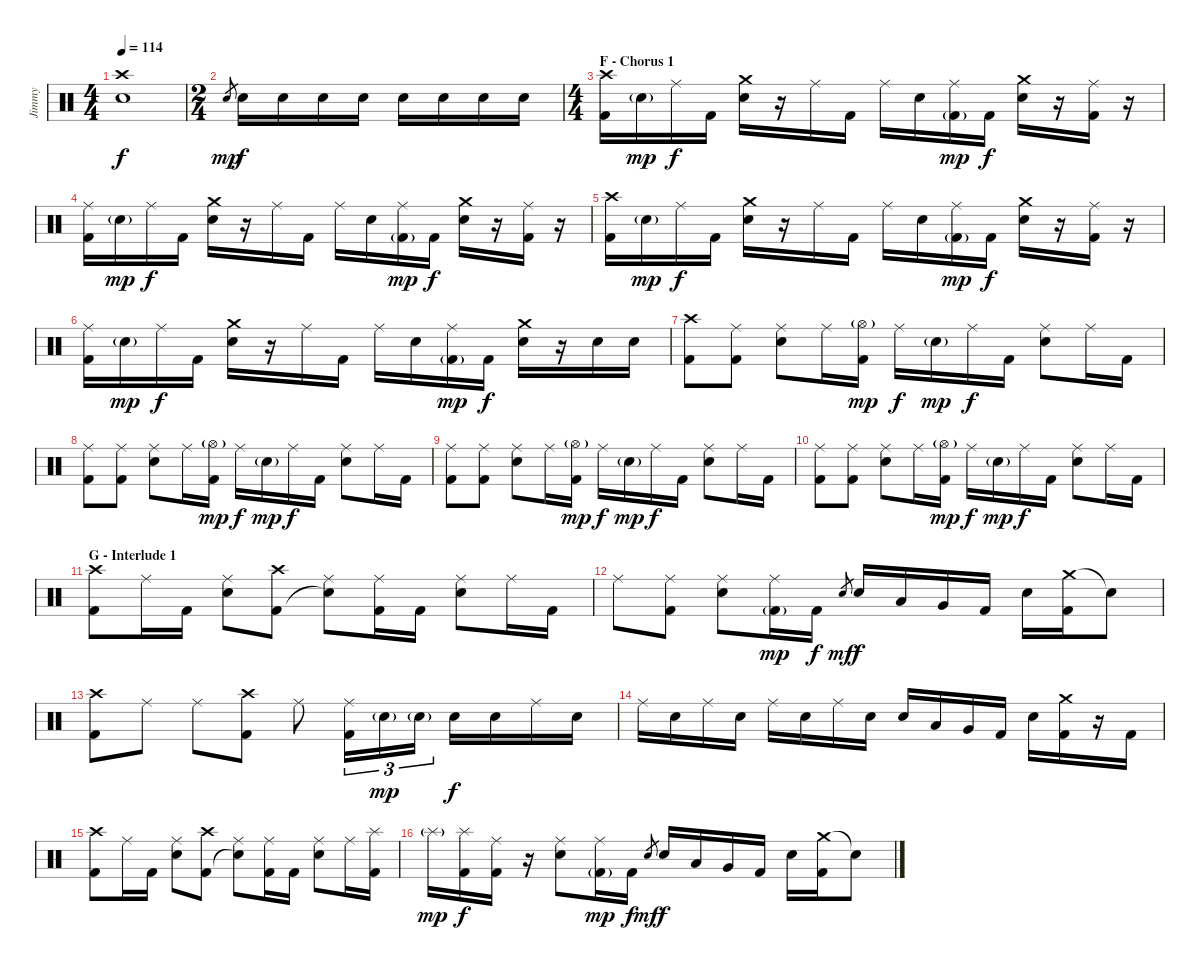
\track ("Jimmy" "Jimmy") {instrument percussion}
\staff {score}
\articulation defaults
\ts (4 4)
\tempo 114
\clef neutral
\ks c
("Crash high (hit)" "Electric Snare (hit)").1{dy f} |
\ts (2 4)
"Electric Snare (hit)".8{gr dy mp} "Electric Snare (hit)".16{dy f} "Electric Snare (hit)".16 "Electric Snare (hit)".16 "Electric Snare (hit)".16 "Electric Snare (hit)".16 "Electric Snare (hit)".16 "Electric Snare (hit)".16 "Electric Snare (hit)".16 |
\ts (4 4)
\section ("" "F - Chorus 1")
("Crash high (hit)" "Kick (hit) 2").16 "Electric Snare (hit)"{g}.16{dy mp} "Ride (middle)".16{dy f} "Kick (hit) 2".16 ("Crash medium (hit)" "Electric Snare (hit)").16 r.16 "Ride (middle)".16 "Kick (hit) 2".16 "Ride (middle)".16 "Electric Snare (hit)".16 ("Ride (middle)" "Kick (hit) 2"{g}).16{dy mp} "Kick (hit) 2".16{dy f} ("Crash medium (hit)" "Electric Snare (hit)").16 r.16 ("Ride (middle)" "Kick (hit) 2").16 r.16 |
("Ride (middle)" "Kick (hit) 2").16 "Electric Snare (hit)"{g}.16{dy mp} "Ride (middle)".16{dy f} "Kick (hit) 2".16 ("Crash medium (hit)" "Electric Snare (hit)").16 r.16 "Ride (middle)".16 "Kick (hit) 2".16 "Ride (middle)".16 "Electric Snare (hit)".16 ("Ride (middle)" "Kick (hit) 2"{g}).16{dy mp} "Kick (hit) 2".16{dy f} ("Crash medium (hit)" "Electric Snare (hit)").16 r.16 ("Ride (middle)" "Kick (hit) 2").16 r.16 |
("Crash high (hit)" "Kick (hit) 2").16 "Electric Snare (hit)"{g}.16{dy mp} "Ride (middle)".16{dy f} "Kick (hit) 2".16 ("Crash medium (hit)" "Electric Snare (hit)").16 r.16 "Ride (middle)".16 "Kick (hit) 2".16 "Ride (middle)".16 "Electric Snare (hit)".16 ("Ride (middle)" "Kick (hit) 2"{g}).16{dy mp} "Kick (hit) 2".16{dy f} ("Crash medium (hit)" "Electric Snare (hit)").16 r.16 ("Ride (middle)" "Kick (hit) 2").16 r.16 |
("Ride (middle)" "Kick (hit) 2").16 "Electric Snare (hit)"{g}.16{dy mp} "Ride (middle)".16{dy f} "Kick (hit) 2".16 ("Crash medium (hit)" "Electric Snare (hit)").16 r.16 "Ride (middle)".16 "Kick (hit) 2".16 "Ride (middle)".16 "Electric Snare (hit)".16 ("Ride (middle)" "Kick (hit) 2"{g}).16{dy mp} "Kick (hit) 2".16{dy f} ("Crash medium (hit)" "Electric Snare (hit)").16 r.16 "Electric Snare (hit)".16 "Electric Snare (hit)".16 |
("Crash high (hit)" "Kick (hit) 2").8 ("Ride (middle)" "Kick (hit) 2").8 ("Ride (middle)" "Electric Snare (hit)").8 "Ride (middle)".16 ("Hi-Hat (open)"{g} "Kick (hit) 2").16{dy mp} "Ride (middle)".16{dy f} "Electric Snare (hit)"{g}.16{dy mp} "Ride (middle)".16{dy f} "Kick (hit) 2".16 ("Ride (middle)" "Electric Snare (hit)").8 "Ride (middle)".16 "Kick (hit) 2".16 |
("Ride (middle)" "Kick (hit) 2").8 ("Ride (middle)" "Kick (hit) 2").8 ("Ride (middle)" "Electric Snare (hit)").8 "Ride (middle)".16 ("Hi-Hat (open)"{g} "Kick (hit) 2").16{dy mp} "Ride (middle)".16{dy f} "Electric Snare (hit)"{g}.16{dy mp} "Ride (middle)".16{dy f} "Kick (hit) 2".16 ("Ride (middle)" "Electric Snare (hit)").8 "Ride (middle)".16 "Kick (hit) 2".16 |
("Ride (middle)" "Kick (hit) 2").8 ("Ride (middle)" "Kick (hit) 2").8 ("Ride (middle)" "Electric Snare (hit)").8 "Ride (middle)".16 ("Hi-Hat (open)"{g} "Kick (hit) 2").16{dy mp} "Ride (middle)".16{dy f} "Electric Snare (hit)"{g}.16{dy mp} "Ride (middle)".16{dy f} "Kick (hit) 2".16 ("Ride (middle)" "Electric Snare (hit)").8 "Ride (middle)".16 "Kick (hit) 2".16 |
("Ride (middle)" "Kick (hit) 2").8 ("Ride (middle)" "Kick (hit) 2").8 ("Ride (middle)" "Electric Snare (hit)").8 "Ride (middle)".16 ("Hi-Hat (open)"{g} "Kick (hit) 2").16{dy mp} "Ride (middle)".16{dy f} "Electric Snare (hit)"{g}.16{dy mp} "Ride (middle)".16{dy f} "Kick (hit) 2".16 ("Ride (middle)" "Electric Snare (hit)").8 "Ride (middle)".16 "Kick (hit) 2".16 |
\section ("" "G - Interlude 1")
("Crash high (hit)" "Kick (hit) 2").8 "Ride (middle)".16 "Kick (hit) 2".16 ("Ride (middle)" "Electric Snare (hit)").8 ("Crash high (hit)" "Kick (hit) 2").8 ("Ride (middle)" "Snare (hit)"{t}).8 ("Ride (middle)" "Kick (hit) 2").16 "Kick (hit) 2".16 ("Ride (middle)" "Electric Snare (hit)").8 "Ride (middle)".16 "Kick (hit) 2".16 |
"Ride (middle)".8 ("Ride (middle)" "Kick (hit) 2").8 ("Ride (middle)" "Electric Snare (hit)").8 ("Ride (middle)" "Kick (hit) 2"{g}).16{dy mp} "Kick (hit) 2".16{dy f} "Electric Snare (hit)".8{gr dy mf} "Electric Snare (hit)".16{dy f} "Low Tom (hit)".16 "Very Low Tom (hit)".16 "Kick (hit) 2".16 "Electric Snare (hit)".16 ("Crash medium (hit)" "Kick (hit) 2").16 "Snare (hit)"{t}.8 |
("Crash high (hit)" "Kick (hit) 2").8 "Ride (middle)".8 "Ride (middle)".8 ("Crash high (hit)" "Kick (hit) 2").8 "Ride (middle)".8 ("Ride (middle)" "Kick (hit) 2").16{tu (3 2)} "Electric Snare (hit)"{g}.16{tu (3 2) dy mp} "Electric Snare (hit)"{g}.16{tu (3 2)} "Electric Snare (hit)".16{dy f} "Electric Snare (hit)".16 "Ride (middle)".16 "Electric Snare (hit)".16 |
"Ride (middle)".16 "Electric Snare (hit)".16 "Ride (middle)".16 "Electric Snare (hit)".16 "Ride (middle)".16 "Electric Snare (hit)".16 "Ride (middle)".16 "Electric Snare (hit)".16 "Electric Snare (hit)".16 "Low Tom (hit)".16 "Very Low Tom (hit)".16 "Kick (hit) 2".16 "Electric Snare (hit)".16 ("Crash medium (hit)" "Kick (hit) 2").16 r.16 "Kick (hit) 2".16 |
("Crash high (hit)" "Kick (hit) 2").8 "Ride (middle)".16 "Kick (hit) 2".16 ("Ride (middle)" "Electric Snare (hit)").8 ("Crash high (hit)" "Kick (hit) 2").8 ("Ride (middle)" "Snare (hit)"{t}).8 ("Ride (middle)" "Kick (hit) 2").16 "Kick (hit) 2".16 ("Ride (middle)" "Electric Snare (hit)").8 "Ride (middle)".16 ("Splash (hit)" "Kick (hit) 2").16 |
"Splash (hit)"{g}.16{dy mp} ("Splash (hit)" "Kick (hit) 2").16{dy f} ("Ride (middle)" "Kick (hit) 2").16 r.16 ("Ride (middle)" "Electric Snare (hit)").8 ("Ride (middle)" "Kick (hit) 2"{g}).16{dy mp} "Kick (hit) 2".16{dy f} "Electric Snare (hit)".8{gr dy mf} "Electric Snare (hit)".16{dy f} "Low Tom (hit)".16 "Very Low Tom (hit)".16 "Kick (hit) 2".16 "Electric Snare (hit)".16 ("Crash medium (hit)" "Kick (hit) 2").16 "Snare (hit)"{t}.8
